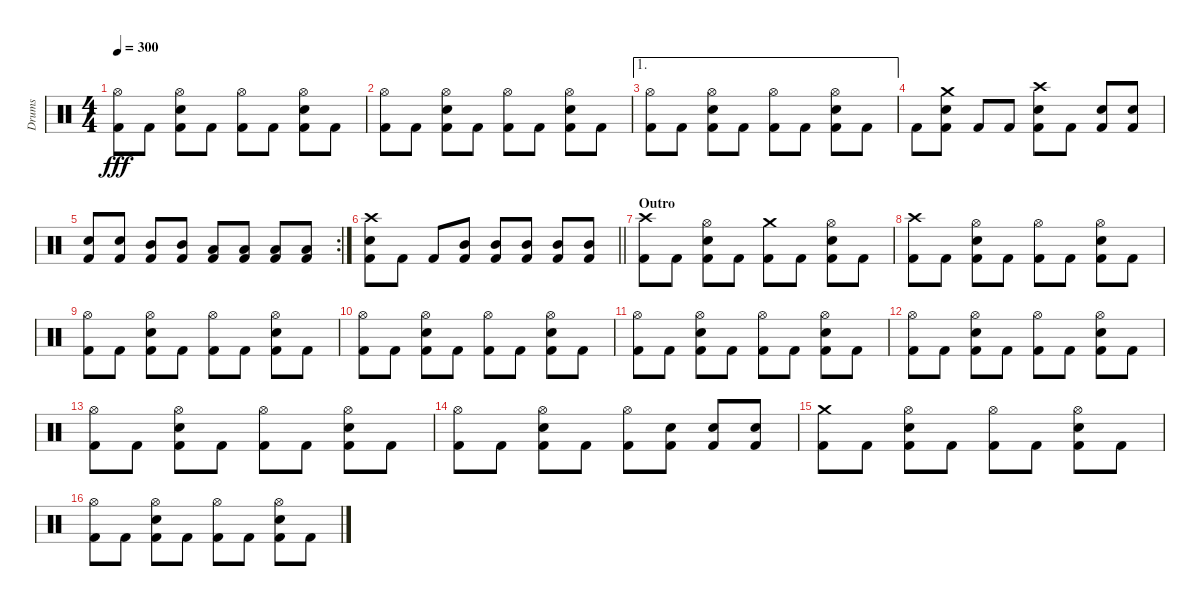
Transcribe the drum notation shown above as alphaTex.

\track ("Drums" "Drums") {instrument percussion}
\staff {score}
\articulation defaults
\ts (4 4)
\tempo 300
\clef neutral
\ks c
("Hi-Hat (open)" "Kick (hit) 2").8{dy fff} "Kick (hit) 2".8 ("Hi-Hat (open)" "Snare (hit) 2" "Kick (hit) 2").8 "Kick (hit) 2".8 ("Hi-Hat (open)" "Kick (hit) 2").8 "Kick (hit) 2".8 ("Hi-Hat (open)" "Snare (hit) 2" "Kick (hit) 2").8 "Kick (hit) 2".8 |
("Hi-Hat (open)" "Kick (hit) 2").8 "Kick (hit) 2".8 ("Hi-Hat (open)" "Snare (hit) 2" "Kick (hit) 2").8 "Kick (hit) 2".8 ("Hi-Hat (open)" "Kick (hit) 2").8 "Kick (hit) 2".8 ("Hi-Hat (open)" "Snare (hit) 2" "Kick (hit) 2").8 "Kick (hit) 2".8 |
\ae 1
("Hi-Hat (open)" "Kick (hit) 2").8 "Kick (hit) 2".8 ("Hi-Hat (open)" "Snare (hit) 2" "Kick (hit) 2").8 "Kick (hit) 2".8 ("Hi-Hat (open)" "Kick (hit) 2").8 "Kick (hit) 2".8 ("Hi-Hat (open)" "Snare (hit) 2" "Kick (hit) 2").8 "Kick (hit) 2".8 |
"Kick (hit) 2".8 ("Crash medium (hit)" "Snare (hit) 2" "Kick (hit) 2").8 "Kick (hit) 2".8 "Kick (hit) 2".8 ("Crash high (hit)" "Snare (hit) 2" "Kick (hit) 2").8 "Kick (hit) 2".8 ("Snare (hit) 2" "Kick (hit) 2").8 ("Snare (hit) 2" "Kick (hit) 2").8 |
\rc 2
("Snare (hit) 2" "Kick (hit) 2").8 ("Snare (hit) 2" "Kick (hit) 2").8 ("Mid Tom (hit)" "Kick (hit) 2").8 ("Mid Tom (hit)" "Kick (hit) 2").8 ("Low Tom (hit)" "Kick (hit) 2").8 ("Low Tom (hit)" "Kick (hit) 2").8 ("Low Tom (hit)" "Kick (hit) 2").8 ("Low Tom (hit)" "Kick (hit) 2").8 |
\barLineRight lightlight
("Crash high (hit)" "Snare (hit) 2" "Kick (hit) 2").8 "Kick (hit) 2".8 "Kick (hit) 2".8 ("Mid Tom (hit)" "Kick (hit) 2").8 ("Mid Tom (hit)" "Kick (hit) 2").8 ("Mid Tom (hit)" "Kick (hit) 2").8 ("Mid Tom (hit)" "Kick (hit) 2").8 ("Mid Tom (hit)" "Kick (hit) 2").8 |
\section ("" "Outro")
("Crash high (hit)" "Kick (hit) 2").8 "Kick (hit) 2".8 ("Hi-Hat (open)" "Snare (hit) 2" "Kick (hit) 2").8 "Kick (hit) 2".8 ("Crash medium (hit)" "Kick (hit) 2").8 "Kick (hit) 2".8 ("Hi-Hat (open)" "Snare (hit) 2" "Kick (hit) 2").8 "Kick (hit) 2".8 |
("Crash high (hit)" "Kick (hit) 2").8 "Kick (hit) 2".8 ("Hi-Hat (open)" "Snare (hit) 2" "Kick (hit) 2").8 "Kick (hit) 2".8 ("Hi-Hat (open)" "Kick (hit) 2").8 "Kick (hit) 2".8 ("Hi-Hat (open)" "Snare (hit) 2" "Kick (hit) 2").8 "Kick (hit) 2".8 |
("Hi-Hat (open)" "Kick (hit) 2").8 "Kick (hit) 2".8 ("Hi-Hat (open)" "Snare (hit) 2" "Kick (hit) 2").8 "Kick (hit) 2".8 ("Hi-Hat (open)" "Kick (hit) 2").8 "Kick (hit) 2".8 ("Hi-Hat (open)" "Snare (hit) 2" "Kick (hit) 2").8 "Kick (hit) 2".8 |
("Hi-Hat (open)" "Kick (hit) 2").8 "Kick (hit) 2".8 ("Hi-Hat (open)" "Snare (hit) 2" "Kick (hit) 2").8 "Kick (hit) 2".8 ("Hi-Hat (open)" "Kick (hit) 2").8 "Kick (hit) 2".8 ("Hi-Hat (open)" "Snare (hit) 2" "Kick (hit) 2").8 "Kick (hit) 2".8 |
("Hi-Hat (open)" "Kick (hit) 2").8 "Kick (hit) 2".8 ("Hi-Hat (open)" "Snare (hit) 2" "Kick (hit) 2").8 "Kick (hit) 2".8 ("Hi-Hat (open)" "Kick (hit) 2").8 "Kick (hit) 2".8 ("Hi-Hat (open)" "Snare (hit) 2" "Kick (hit) 2").8 "Kick (hit) 2".8 |
("Hi-Hat (open)" "Kick (hit) 2").8 "Kick (hit) 2".8 ("Hi-Hat (open)" "Snare (hit) 2" "Kick (hit) 2").8 "Kick (hit) 2".8 ("Hi-Hat (open)" "Kick (hit) 2").8 "Kick (hit) 2".8 ("Hi-Hat (open)" "Snare (hit) 2" "Kick (hit) 2").8 "Kick (hit) 2".8 |
("Hi-Hat (open)" "Kick (hit) 2").8 "Kick (hit) 2".8 ("Hi-Hat (open)" "Snare (hit) 2" "Kick (hit) 2").8 "Kick (hit) 2".8 ("Hi-Hat (open)" "Kick (hit) 2").8 "Kick (hit) 2".8 ("Hi-Hat (open)" "Snare (hit) 2" "Kick (hit) 2").8 "Kick (hit) 2".8 |
("Hi-Hat (open)" "Kick (hit) 2").8 "Kick (hit) 2".8 ("Hi-Hat (open)" "Snare (hit) 2" "Kick (hit) 2").8 "Kick (hit) 2".8 ("Hi-Hat (open)" "Kick (hit) 2").8 ("Snare (hit) 2" "Kick (hit) 2").8 ("Snare (hit) 2" "Kick (hit) 2").8 ("Snare (hit) 2" "Kick (hit) 2").8 |
("Crash medium (hit)" "Kick (hit) 2").8 "Kick (hit) 2".8 ("Hi-Hat (open)" "Snare (hit) 2" "Kick (hit) 2").8 "Kick (hit) 2".8 ("Hi-Hat (open)" "Kick (hit) 2").8 "Kick (hit) 2".8 ("Hi-Hat (open)" "Snare (hit) 2" "Kick (hit) 2").8 "Kick (hit) 2".8 |
("Hi-Hat (open)" "Kick (hit) 2").8 "Kick (hit) 2".8 ("Hi-Hat (open)" "Snare (hit) 2" "Kick (hit) 2").8 "Kick (hit) 2".8 ("Hi-Hat (open)" "Kick (hit) 2").8 "Kick (hit) 2".8 ("Hi-Hat (open)" "Snare (hit) 2" "Kick (hit) 2").8 "Kick (hit) 2".8
